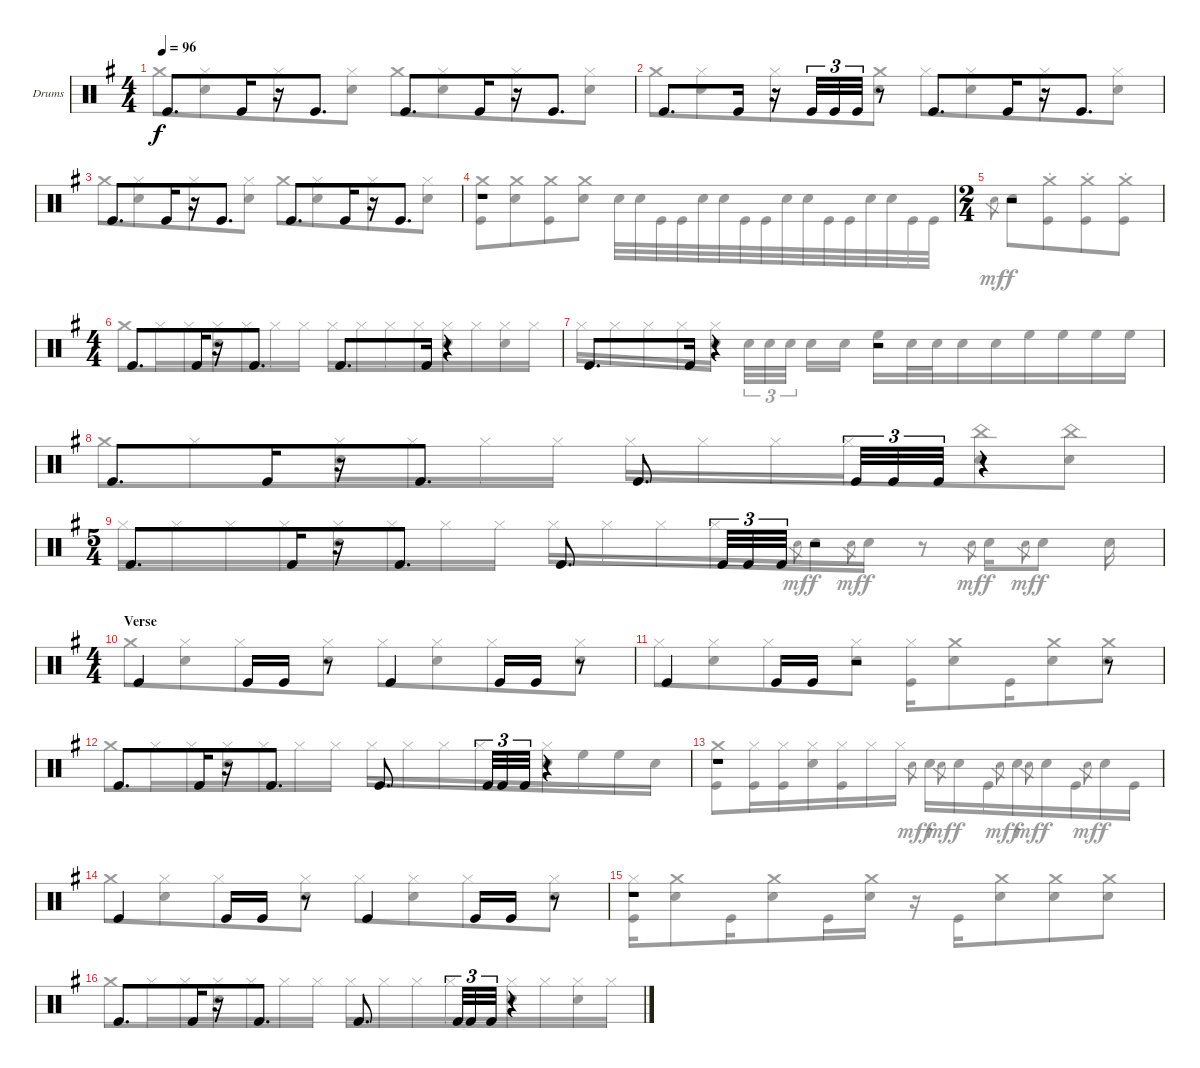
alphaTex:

\bracketExtendMode groupsimilarinstruments
\firstSystemTrackNameOrientation horizontal
\otherSystemsTrackNameOrientation horizontal
\track ("Drumkit" "Drums") {instrument percussion}
\staff {score}
\articulation defaults
\voice
\ts (4 4)
\beaming (8 4 4)
\tempo 96
\clef neutral
\scale
1.07314
\ks g "Kick (hit)".8{d dy f} "Kick (hit)".16
r.16 "Kick (hit)".8{d} "Kick (hit)".8{d} "Kick (hit)".16 r.16 "Kick (hit)".8{d} |
\scale
0.92686 "Kick (hit)".8{d} "Kick (hit)".16 r.16 "Kick (hit)".32{tu (3 2)} "Kick (hit)".32{tu (3 2)} "Kick (hit)".32{tu (3 2)} r.8 "Kick (hit)".8{d} "Kick (hit)".16 r.16 "Kick (hit)".8{d} |
\scale
1.04288 "Kick (hit)".8{d} "Kick (hit)".16 r.16 "Kick (hit)".8{d} "Kick (hit)".8{d} "Kick (hit)".16 r.16 "Kick (hit)".8{d} |
\scale
0.957125 r.1 |
\ts (2 4)
\beaming (8 4 4)
\scale
1.07314 r.2 |
\ts (4 4)
\beaming (8 4 4)
\scale
0.92686 "Kick (hit)".8{d} "Kick (hit)".16 r.16 "Kick (hit)".8{d} "Kick (hit)".8{d} "Kick (hit)".16 r.4 |
\scale
1.04288 "Kick (hit)".8{d} "Kick (hit)".16 r.4 r.2 |
\scale
0.957125 "Kick (hit)".8{d} "Kick (hit)".16 r.16 "Kick (hit)".8{d} "Kick (hit)".8{d} "Kick (hit)".32{tu (3 2)} "Kick (hit)".32{tu (3 2)} "Kick (hit)".32{tu (3 2)} r.4 |
\ts (5 4)
\beaming (8 4 4)
\scale
1.07314 "Kick (hit)".8{d} "Kick (hit)".16 r.16 "Kick (hit)".8{d} "Kick (hit)".8{d} "Kick (hit)".32{tu (3 2)} "Kick (hit)".32{tu (3 2)} "Kick (hit)".32{tu (3 2)} r.2 |
\ts (4 4)
\beaming (8 4 4)
\section ("" "Verse")
\scale
0.92686 "Kick (hit)".4 "Kick (hit)".16 "Kick (hit)".16 r.8 "Kick (hit)".4 "Kick (hit)".16 "Kick (hit)".16 r.8 |
\scale
1.04288 "Kick (hit)".4 "Kick (hit)".16 "Kick (hit)".16 r.2 r.8 |
\scale
0.957125 "Kick (hit)".8{d} "Kick (hit)".16 r.16 "Kick (hit)".8{d} "Kick (hit)".8{d} "Kick (hit)".32{tu (3 2)} "Kick (hit)".32{tu (3 2)} "Kick (hit)".32{tu (3 2)} r.4 |
\scale
1.04288 r.1 |
\scale
0.957125 "Kick (hit)".4 "Kick (hit)".16 "Kick (hit)".16 r.8 "Kick (hit)".4 "Kick (hit)".16 "Kick (hit)".16 r.8 |
\scale
1.04288 r.1 |
\scale
0.957125 "Kick (hit)".8{d} "Kick (hit)".16 r.16 "Kick (hit)".8{d} "Kick (hit)".8{d} "Kick (hit)".32{tu (3 2)} "Kick (hit)".32{tu (3 2)} "Kick (hit)".32{tu (3 2)} r.4
\voice
\clef neutral
\ottava regular
\simile none
\scale
1.07314
\ks g "Crash medium (hit)".8{dy f}
("Hi-Hat (closed)" "Snare (hit) 2").8 "Hi-Hat (closed)".8 ("Hi-Hat (closed)" "Snare (hit) 2").8 "Crash medium (hit)".8 ("Hi-Hat (closed)" "Snare (hit) 2").8 "Hi-Hat (closed)".8 ("Hi-Hat (closed)" "Snare (hit) 2").8 |
\scale
0.92686 "Crash medium (hit)".8 ("Hi-Hat (closed)" "Snare (hit) 2").8 "Hi-Hat (closed)".8 ("Crash medium (hit)" "Snare (hit) 2").8 "Hi-Hat (closed)".8 ("Hi-Hat (closed)" "Snare (hit) 2").8 "Hi-Hat (closed)".8 ("Hi-Hat (closed)" "Snare (hit) 2").8 |
\scale
1.04288 "Crash medium (hit)".8 ("Hi-Hat (closed)" "Snare (hit) 2").8 "Hi-Hat (closed)".8 ("Hi-Hat (closed)" "Snare (hit) 2").8 "Crash medium (hit)".8 ("Hi-Hat (closed)" "Snare (hit) 2").8 "Hi-Hat (closed)".8 ("Hi-Hat (closed)" "Snare (hit) 2").8 |
\scale
0.957125 ("Crash medium (hit)" "Kick (hit)").8 ("Crash medium (hit)" "Snare (hit) 2").8 ("Crash medium (hit)" "Kick (hit)").8 ("Crash medium (hit)" "Snare (hit) 2").8 "Snare (hit) 2".32 "Snare (hit) 2".32 "Kick (hit)".32 "Kick (hit)".32 "Snare (hit) 2".32 "Snare (hit) 2".32 "Kick (hit)".32 "Kick (hit)".32 "Snare (hit) 2".32 "Snare (hit) 2".32 "Kick (hit)".32 "Kick (hit)".32 "Snare (hit) 2".32 "Snare (hit) 2".32 "Kick (hit)".32 "Kick (hit)".32 |
\scale
1.07314 "Snare (hit) 2".8{gr dy mf} "Snare (hit) 2".8{dy f} ("Crash medium (hit)"{st} "Kick (hit)").8 ("Crash medium (hit)"{st} "Kick (hit)").8 ("Crash medium (hit)"{st} "Kick (hit)").8 |
\scale
0.92686 "Crash medium (hit)".8 "Hi-Hat (closed)".16 "Hi-Hat (closed)".16 ("Hi-Hat (closed)" "Snare (hit) 2").16 "Hi-Hat (closed)".16 "Hi-Hat (closed)".16 "Hi-Hat (closed)".16 "Hi-Hat (closed)".16 "Hi-Hat (closed)".16 "Hi-Hat (closed)".16 "Hi-Hat (closed)".16 ("Hi-Hat (closed)" "Snare (hit) 2").16 "Hi-Hat (closed)".16 ("Hi-Hat (closed)" "Snare (hit) 2").16 "Hi-Hat (closed)".16 |
\scale
1.04288 "Hi-Hat (closed)".16 "Hi-Hat (closed)".16 "Hi-Hat (closed)".16 "Hi-Hat (closed)".16 ("Hi-Hat (closed)" "Snare (hit) 2").16 "Snare (hit) 2".32{tu (3 2)} "Snare (hit) 2".32{tu (3 2)} "Snare (hit) 2".32{tu (3 2)} "Snare (hit) 2".16 "Snare (hit) 2".16 "High Floor Tom (hit)".16 "Snare (hit) 2".32 "Snare (hit) 2".32 "Snare (hit) 2".16 "Snare (hit) 2".16 "High Floor Tom (hit)".16 "High Floor Tom (hit)".16 "High Floor Tom (hit)".16 "High Floor Tom (hit)".16 |
\scale
0.957125 "Crash medium (hit)".8 "Hi-Hat (closed)".8 ("Hi-Hat (closed)" "Snare (hit) 2").16 "Hi-Hat (closed)".16 "Hi-Hat (closed)".16 "Hi-Hat (closed)".16 "Hi-Hat (closed)".16 "Hi-Hat (closed)".16 "Hi-Hat (closed)".16 "Hi-Hat (closed)".16 ("China (hit)" "Snare (hit) 2").8 ("China (hit)" "Snare (hit) 2").8 |
\scale
1.07314 "Hi-Hat (closed)".16 "Hi-Hat (closed)".16 "Hi-Hat (closed)".16 "Hi-Hat (closed)".16 ("Hi-Hat (closed)" "Snare (hit) 2").16 "Hi-Hat (closed)".16 "Hi-Hat (closed)".16 "Hi-Hat (closed)".16 "Hi-Hat (closed)".16 "Hi-Hat (closed)".16 "Hi-Hat (closed)".16 "Hi-Hat (closed)".16 "Snare (hit) 2".8{gr dy mf} "Snare (hit) 2".16{dy f} "Snare (hit) 2".8{gr dy mf} "Snare (hit) 2".16{dy f} r.8 "Snare (hit) 2".8{gr dy mf} "Snare (hit) 2".16{dy f} "Snare (hit) 2".8{gr dy mf} "Snare (hit) 2".8{dy f} "Snare (hit) 2".16 |
\scale
0.92686 "Crash medium (hit)".8 ("Hi-Hat (closed)" "Snare (hit) 2").8 "Hi-Hat (closed)".8 ("Hi-Hat (closed)" "Snare (hit) 2").8 "Hi-Hat (closed)".8 ("Hi-Hat (closed)" "Snare (hit) 2").8 "Hi-Hat (closed)".8 ("Hi-Hat (closed)" "Snare (hit) 2").8 |
\scale
1.04288 "Hi-Hat (closed)".8 ("Hi-Hat (closed)" "Snare (hit) 2").8 "Hi-Hat (closed)".8 ("Hi-Hat (closed)" "Snare (hit) 2").8 ("Hi-Hat (closed)" "Kick (hit)").16 ("Crash medium (hit)" "Snare (hit) 2").8 "Kick (hit)".16 ("Crash medium (hit)" "Snare (hit) 2").8 ("Crash medium (hit)" "Snare (hit) 2").8 |
\scale
0.957125 "Crash medium (hit)".8 "Hi-Hat (closed)".16 "Hi-Hat (closed)".16 ("Hi-Hat (closed)" "Snare (hit) 2").16 "Hi-Hat (closed)".16 "Hi-Hat (closed)".16 "Hi-Hat (closed)".16 "Hi-Hat (closed)".16 "Hi-Hat (closed)".16 "Hi-Hat (closed)".16 "Hi-Hat (closed)".16 ("Hi-Hat (closed)" "Snare (hit) 2").16 "High Floor Tom (hit)".16 "High Floor Tom (hit)".16 "Snare (hit) 2".16 |
\scale
1.04288 ("Crash medium (hit)" "Kick (hit)").8 ("Hi-Hat (closed)" "Kick (hit)").16 ("Hi-Hat (closed)" "Kick (hit)").16 ("Hi-Hat (closed)" "Snare (hit) 2").16 ("Hi-Hat (closed)" "Kick (hit)").16 "Hi-Hat (closed)".16 "Hi-Hat (closed)".16 "Snare (hit) 2".8{gr dy mf} "Snare (hit) 2".16{dy f} "Snare (hit) 2".8{gr dy mf} "Snare (hit) 2".16{dy f} "Kick (hit)".16 "Snare (hit) 2".8{gr dy mf} "Snare (hit) 2".16{dy f} "Snare (hit) 2".8{gr dy mf} "Snare (hit) 2".16{dy f} "Kick (hit)".16 "Snare (hit) 2".8{gr dy mf} "Snare (hit) 2".16{dy f} "Kick (hit)".16 |
\scale
0.957125 "Crash medium (hit)".8 ("Hi-Hat (closed)" "Snare (hit) 2").8 "Hi-Hat (closed)".8 ("Hi-Hat (closed)" "Snare (hit) 2").8 "Hi-Hat (closed)".8 ("Hi-Hat (closed)" "Snare (hit) 2").8 "Hi-Hat (closed)".8 ("Hi-Hat (closed)" "Snare (hit) 2").8 |
\scale
1.04288 ("Hi-Hat (closed)" "Kick (hit)").16 ("Crash medium (hit)" "Snare (hit) 2").8 "Kick (hit)".16 ("Crash medium (hit)" "Snare (hit) 2").8 "Kick (hit)".16 ("Crash medium (hit)" "Snare (hit) 2").16 r.16 "Kick (hit)".16 ("Crash medium (hit)" "Snare (hit) 2").8 ("Crash medium (hit)" "Snare (hit) 2").8 ("Crash medium (hit)" "Snare (hit) 2").8 |
\scale
0.957125 "Crash medium (hit)".8 "Hi-Hat (closed)".16 "Hi-Hat (closed)".16 ("Hi-Hat (closed)" "Snare (hit) 2").16 "Hi-Hat (closed)".16 "Hi-Hat (closed)".16 "Hi-Hat (closed)".16 "Hi-Hat (closed)".16 "Hi-Hat (closed)".16 "Hi-Hat (closed)".16 "Hi-Hat (closed)".16 ("Hi-Hat (closed)" "Snare (hit) 2").16 "Hi-Hat (closed)".16 ("Hi-Hat (closed)" "Snare (hit) 2").16 "Hi-Hat (closed)".16
